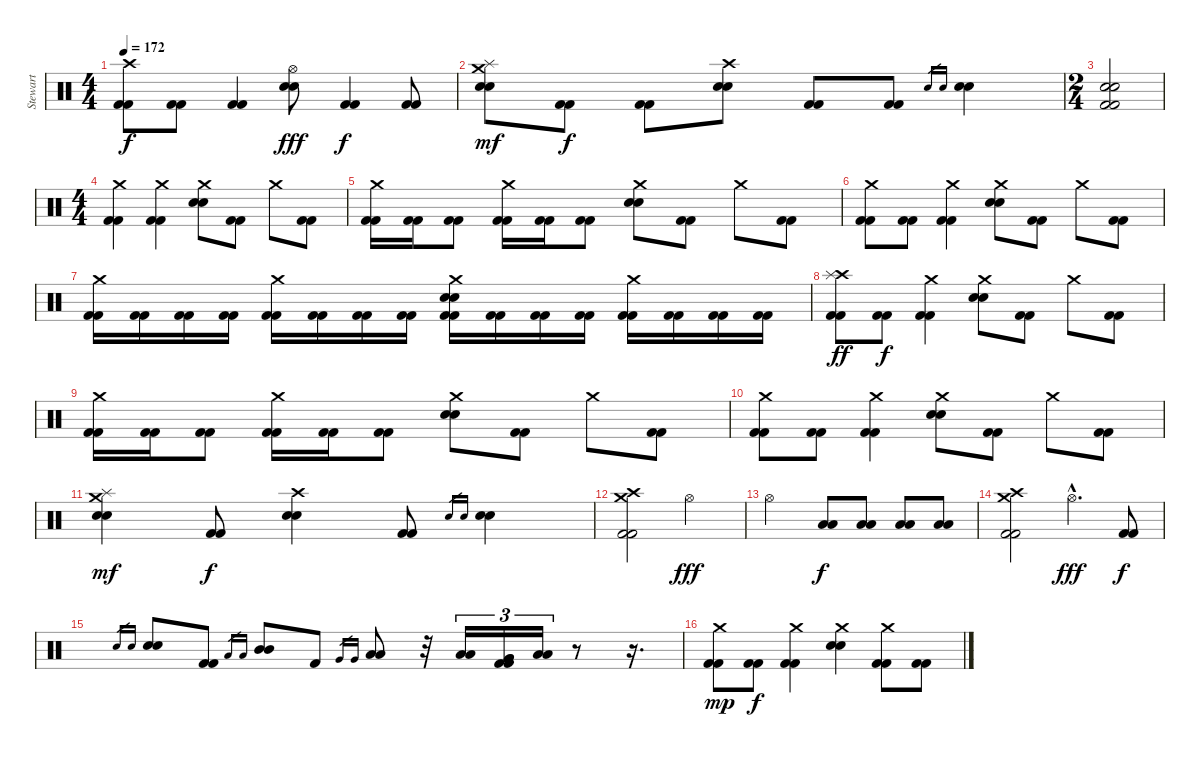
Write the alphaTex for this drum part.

\track ("Stewart" "Stewart") {instrument percussion}
\staff {score}
\articulation defaults
\ts (4 4)
\tempo 172
\clef neutral
\ks c
("Crash high (hit)" "Kick (hit) 2" "Kick (hit) 2").8{dy f} ("Kick (hit) 2" "Kick (hit) 2").8 ("Kick (hit) 2" "Kick (hit) 2").4 ("Hi-Hat (open)" "Electric Snare (hit)" "Electric Snare (hit)").8{dy fff} ("Kick (hit) 2" "Kick (hit) 2").4{dy f} ("Kick (hit) 2" "Kick (hit) 2").8 |
("Crash medium (hit)" "Splash (hit)" "Electric Snare (hit)" "Electric Snare (hit)").8{dy mf} ("Kick (hit) 2" "Kick (hit) 2").8{dy f} ("Kick (hit) 2" "Kick (hit) 2").8 ("Crash high (hit)" "Electric Snare (hit)" "Electric Snare (hit)").8 ("Kick (hit) 2" "Kick (hit) 2").8 ("Kick (hit) 2" "Kick (hit) 2").8 "Electric Snare (hit)".16{gr} "Electric Snare (hit)".16{gr} ("Electric Snare (hit)" "Electric Snare (hit)").4 |
\ts (2 4)
("Electric Snare (hit)" "Electric Snare (hit)" "Kick (hit) 2" "Kick (hit) 2").2 |
\ts (4 4)
("Crash medium (hit)" "Kick (hit) 2" "Kick (hit) 2").4 ("Crash medium (hit)" "Kick (hit) 2" "Kick (hit) 2").4 ("Crash medium (hit)" "Electric Snare (hit)" "Electric Snare (hit)").8 ("Kick (hit) 2" "Kick (hit) 2").8 "Crash medium (hit)".8 ("Kick (hit) 2" "Kick (hit) 2").8 |
("Crash medium (hit)" "Kick (hit) 2" "Kick (hit) 2").16 ("Kick (hit) 2" "Kick (hit) 2").16 ("Kick (hit) 2" "Kick (hit) 2").8 ("Crash medium (hit)" "Kick (hit) 2" "Kick (hit) 2").16 ("Kick (hit) 2" "Kick (hit) 2").16 ("Kick (hit) 2" "Kick (hit) 2").8 ("Crash medium (hit)" "Electric Snare (hit)" "Electric Snare (hit)").8 ("Kick (hit) 2" "Kick (hit) 2").8 "Crash medium (hit)".8 ("Kick (hit) 2" "Kick (hit) 2").8 |
("Crash medium (hit)" "Kick (hit) 2" "Kick (hit) 2").8 ("Kick (hit) 2" "Kick (hit) 2").8 ("Crash medium (hit)" "Kick (hit) 2" "Kick (hit) 2").4 ("Crash medium (hit)" "Electric Snare (hit)" "Electric Snare (hit)").8 ("Kick (hit) 2" "Kick (hit) 2").8 "Crash medium (hit)".8 ("Kick (hit) 2" "Kick (hit) 2").8 |
("Crash medium (hit)" "Kick (hit) 2" "Kick (hit) 2").16 ("Kick (hit) 2" "Kick (hit) 2").16 ("Kick (hit) 2" "Kick (hit) 2").16 ("Kick (hit) 2" "Kick (hit) 2").16 ("Crash medium (hit)" "Kick (hit) 2" "Kick (hit) 2").16 ("Kick (hit) 2" "Kick (hit) 2").16 ("Kick (hit) 2" "Kick (hit) 2").16 ("Kick (hit) 2" "Kick (hit) 2").16 ("Crash medium (hit)" "Electric Snare (hit)" "Electric Snare (hit)" "Kick (hit) 2" "Kick (hit) 2").16 ("Kick (hit) 2" "Kick (hit) 2").16 ("Kick (hit) 2" "Kick (hit) 2").16 ("Kick (hit) 2" "Kick (hit) 2").16 ("Crash medium (hit)" "Kick (hit) 2" "Kick (hit) 2").16 ("Kick (hit) 2" "Kick (hit) 2").16 ("Kick (hit) 2" "Kick (hit) 2").16 ("Kick (hit) 2" "Kick (hit) 2").16 |
("Crash high (hit)" "Splash (hit)" "Kick (hit) 2" "Kick (hit) 2").8{dy ff} ("Kick (hit) 2" "Kick (hit) 2").8{dy f} ("Crash medium (hit)" "Kick (hit) 2" "Kick (hit) 2").4 ("Crash medium (hit)" "Electric Snare (hit)" "Electric Snare (hit)").8 ("Kick (hit) 2" "Kick (hit) 2").8 "Crash medium (hit)".8 ("Kick (hit) 2" "Kick (hit) 2").8 |
("Crash medium (hit)" "Kick (hit) 2" "Kick (hit) 2").16 ("Kick (hit) 2" "Kick (hit) 2").16 ("Kick (hit) 2" "Kick (hit) 2").8 ("Crash medium (hit)" "Kick (hit) 2" "Kick (hit) 2").16 ("Kick (hit) 2" "Kick (hit) 2").16 ("Kick (hit) 2" "Kick (hit) 2").8 ("Crash medium (hit)" "Electric Snare (hit)" "Electric Snare (hit)").8 ("Kick (hit) 2" "Kick (hit) 2").8 "Crash medium (hit)".8 ("Kick (hit) 2" "Kick (hit) 2").8 |
("Crash medium (hit)" "Kick (hit) 2" "Kick (hit) 2").8 ("Kick (hit) 2" "Kick (hit) 2").8 ("Crash medium (hit)" "Kick (hit) 2" "Kick (hit) 2").4 ("Crash medium (hit)" "Electric Snare (hit)" "Electric Snare (hit)").8 ("Kick (hit) 2" "Kick (hit) 2").8 "Crash medium (hit)".8 ("Kick (hit) 2" "Kick (hit) 2").8 |
("Crash medium (hit)" "Splash (hit)" "Electric Snare (hit)" "Electric Snare (hit)").4{dy mf} ("Kick (hit) 2" "Kick (hit) 2").8{dy f} ("Crash high (hit)" "Electric Snare (hit)" "Electric Snare (hit)").4 ("Kick (hit) 2" "Kick (hit) 2").8 "Electric Snare (hit)".16{gr} "Electric Snare (hit)".16{gr} ("Electric Snare (hit)" "Electric Snare (hit)").4 |
("Crash medium (hit)" "Crash high (hit)" "Kick (hit) 2" "Kick (hit) 2").2 "Hi-Hat (open)".2{dy fff} |
"Hi-Hat (open)".2 ("Low Floor Tom (hit)" "Low Tom (hit)").8{dy f} ("Low Floor Tom (hit)" "Low Tom (hit)").8 ("Low Floor Tom (hit)" "Low Tom (hit)").8 ("Low Floor Tom (hit)" "Low Tom (hit)").8 |
("Crash medium (hit)" "Crash high (hit)" "Kick (hit) 2" "Kick (hit) 2").2 "Hi-Hat (open)"{hac}.4{d dy fff} ("Kick (hit) 2" "Kick (hit) 2").8{dy f} |
"Electric Snare (hit)".16{gr} "Electric Snare (hit)".16{gr} ("Electric Snare (hit)" "Electric Snare (hit)").8 ("Kick (hit) 2" "Kick (hit) 2").8 "Low Tom (hit)".16{gr} "Low Tom (hit)".16{gr} ("Mid Tom (hit)" "Mid Tom (hit)").8 "Kick (hit) 2".8 "Very Low Tom (hit)".16{gr} "Very Low Tom (hit)".16{gr} ("Low Tom (hit)" "Low Tom (hit)").8 r.32 ("Low Tom (hit)" "Low Tom (hit)").16{tu (3 2)} ("Very Low Tom (hit)" "Very Low Tom (hit)" "Kick (hit) 2" "Kick (hit) 2").16{tu (3 2)} ("Low Floor Tom (hit)" "Low Floor Tom (hit)").16{tu (3 2)} r.8 r.16{d} |
("Crash medium (hit)" "Kick (hit) 2" "Kick (hit) 2").8{dy mp} ("Kick (hit) 2" "Kick (hit) 2").8{dy f} ("Crash medium (hit)" "Kick (hit) 2" "Kick (hit) 2").4 ("Crash medium (hit)" "Electric Snare (hit)" "Electric Snare (hit)").4 ("Crash medium (hit)" "Kick (hit) 2" "Kick (hit) 2").8 ("Kick (hit) 2" "Kick (hit) 2").8
